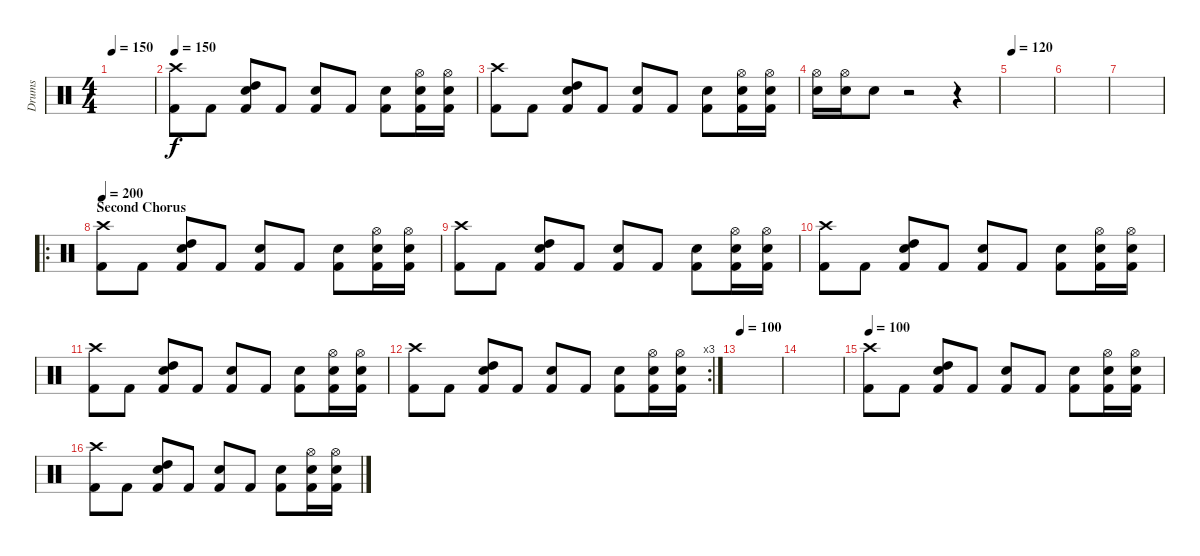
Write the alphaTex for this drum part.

\track ("Drums" "Drums") {instrument percussion}
\staff {score}
\articulation defaults
\ts (4 4)
\tempo 150
\clef neutral
\ks c
|
\tempo 150
("Kick (hit) 2" "Crash high (hit)").8 "Kick (hit) 2".8 ("Kick (hit) 2" "Electric Snare (hit)" "High Tom (hit)").8 "Kick (hit) 2".8 ("Kick (hit) 2" "Electric Snare (hit)").8 "Kick (hit) 2".8 ("Kick (hit) 2" "Electric Snare (hit)").8 ("Kick (hit) 2" "Hi-Hat (open)" "Electric Snare (hit)").16 ("Kick (hit) 2" "Hi-Hat (open)" "Electric Snare (hit)").16 |
("Kick (hit) 2" "Crash high (hit)").8 "Kick (hit) 2".8 ("Kick (hit) 2" "Electric Snare (hit)" "High Tom (hit)").8 "Kick (hit) 2".8 ("Kick (hit) 2" "Electric Snare (hit)").8 "Kick (hit) 2".8 ("Kick (hit) 2" "Electric Snare (hit)").8 ("Kick (hit) 2" "Hi-Hat (open)" "Electric Snare (hit)").16 ("Kick (hit) 2" "Hi-Hat (open)" "Electric Snare (hit)").16 |
("Hi-Hat (open)" "Electric Snare (hit)").16 ("Hi-Hat (open)" "Electric Snare (hit)").16 "Electric Snare (hit)".8 r.2 r.4 |
\tempo 120
|
|
|
\ro
\section ("" "Second Chorus")
\tempo 200
("Kick (hit) 2" "Crash high (hit)").8 "Kick (hit) 2".8 ("Kick (hit) 2" "Electric Snare (hit)" "High Tom (hit)").8 "Kick (hit) 2".8 ("Kick (hit) 2" "Electric Snare (hit)").8 "Kick (hit) 2".8 ("Kick (hit) 2" "Electric Snare (hit)").8 ("Kick (hit) 2" "Hi-Hat (open)" "Electric Snare (hit)").16 ("Kick (hit) 2" "Hi-Hat (open)" "Electric Snare (hit)").16 |
("Kick (hit) 2" "Crash high (hit)").8 "Kick (hit) 2".8 ("Kick (hit) 2" "Electric Snare (hit)" "High Tom (hit)").8 "Kick (hit) 2".8 ("Kick (hit) 2" "Electric Snare (hit)").8 "Kick (hit) 2".8 ("Kick (hit) 2" "Electric Snare (hit)").8 ("Kick (hit) 2" "Hi-Hat (open)" "Electric Snare (hit)").16 ("Kick (hit) 2" "Hi-Hat (open)" "Electric Snare (hit)").16 |
("Kick (hit) 2" "Crash high (hit)").8 "Kick (hit) 2".8 ("Kick (hit) 2" "Electric Snare (hit)" "High Tom (hit)").8 "Kick (hit) 2".8 ("Kick (hit) 2" "Electric Snare (hit)").8 "Kick (hit) 2".8 ("Kick (hit) 2" "Electric Snare (hit)").8 ("Kick (hit) 2" "Hi-Hat (open)" "Electric Snare (hit)").16 ("Kick (hit) 2" "Hi-Hat (open)" "Electric Snare (hit)").16 |
("Kick (hit) 2" "Crash high (hit)").8 "Kick (hit) 2".8 ("Kick (hit) 2" "Electric Snare (hit)" "High Tom (hit)").8 "Kick (hit) 2".8 ("Kick (hit) 2" "Electric Snare (hit)").8 "Kick (hit) 2".8 ("Kick (hit) 2" "Electric Snare (hit)").8 ("Kick (hit) 2" "Hi-Hat (open)" "Electric Snare (hit)").16 ("Kick (hit) 2" "Hi-Hat (open)" "Electric Snare (hit)").16 |
\rc 3
("Kick (hit) 2" "Crash high (hit)").8 "Kick (hit) 2".8 ("Kick (hit) 2" "Electric Snare (hit)" "High Tom (hit)").8 "Kick (hit) 2".8 ("Kick (hit) 2" "Electric Snare (hit)").8 "Kick (hit) 2".8 ("Kick (hit) 2" "Electric Snare (hit)").8 ("Kick (hit) 2" "Hi-Hat (open)" "Electric Snare (hit)").16 ("Kick (hit) 2" "Hi-Hat (open)" "Electric Snare (hit)").16 |
\tempo 100
|
|
\tempo 100
("Kick (hit) 2" "Crash high (hit)").8 "Kick (hit) 2".8 ("Kick (hit) 2" "Electric Snare (hit)" "High Tom (hit)").8 "Kick (hit) 2".8 ("Kick (hit) 2" "Electric Snare (hit)").8 "Kick (hit) 2".8 ("Kick (hit) 2" "Electric Snare (hit)").8 ("Kick (hit) 2" "Hi-Hat (open)" "Electric Snare (hit)").16 ("Kick (hit) 2" "Hi-Hat (open)" "Electric Snare (hit)").16 |
("Kick (hit) 2" "Crash high (hit)").8 "Kick (hit) 2".8 ("Kick (hit) 2" "Electric Snare (hit)" "High Tom (hit)").8 "Kick (hit) 2".8 ("Kick (hit) 2" "Electric Snare (hit)").8 "Kick (hit) 2".8 ("Kick (hit) 2" "Electric Snare (hit)").8 ("Kick (hit) 2" "Hi-Hat (open)" "Electric Snare (hit)").16 ("Kick (hit) 2" "Hi-Hat (open)" "Electric Snare (hit)").16
